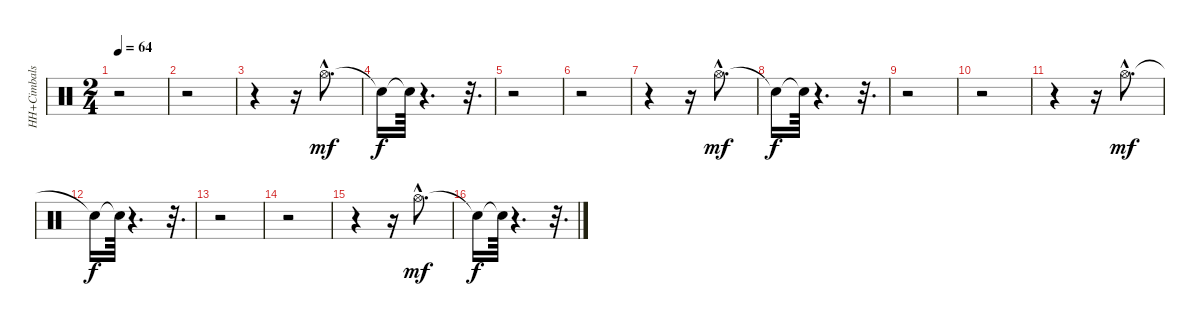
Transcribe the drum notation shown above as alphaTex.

\track ("HH+Cimbals" "HH+Cimbals") {instrument percussion}
\staff {score}
\articulation defaults
\ts (2 4)
\tempo 64
\clef neutral
\ks c
r.2{dy f} |
r.2 |
r.4 r.16 "Hi-Hat (open)"{hac}.8{d dy mf} |
"Snare (hit)"{t}.16{dy f} "Snare (hit)"{t}.64 r.4{d} r.32{d} |
r.2 |
r.2 |
r.4 r.16 "Hi-Hat (open)"{hac}.8{d dy mf} |
"Snare (hit)"{t}.16{dy f} "Snare (hit)"{t}.64 r.4{d} r.32{d} |
r.2 |
r.2 |
r.4 r.16 "Hi-Hat (open)"{hac}.8{d dy mf} |
"Snare (hit)"{t}.16{dy f} "Snare (hit)"{t}.64 r.4{d} r.32{d} |
r.2 |
r.2 |
r.4 r.16 "Hi-Hat (open)"{hac}.8{d dy mf} |
"Snare (hit)"{t}.16{dy f} "Snare (hit)"{t}.64 r.4{d} r.32{d}
